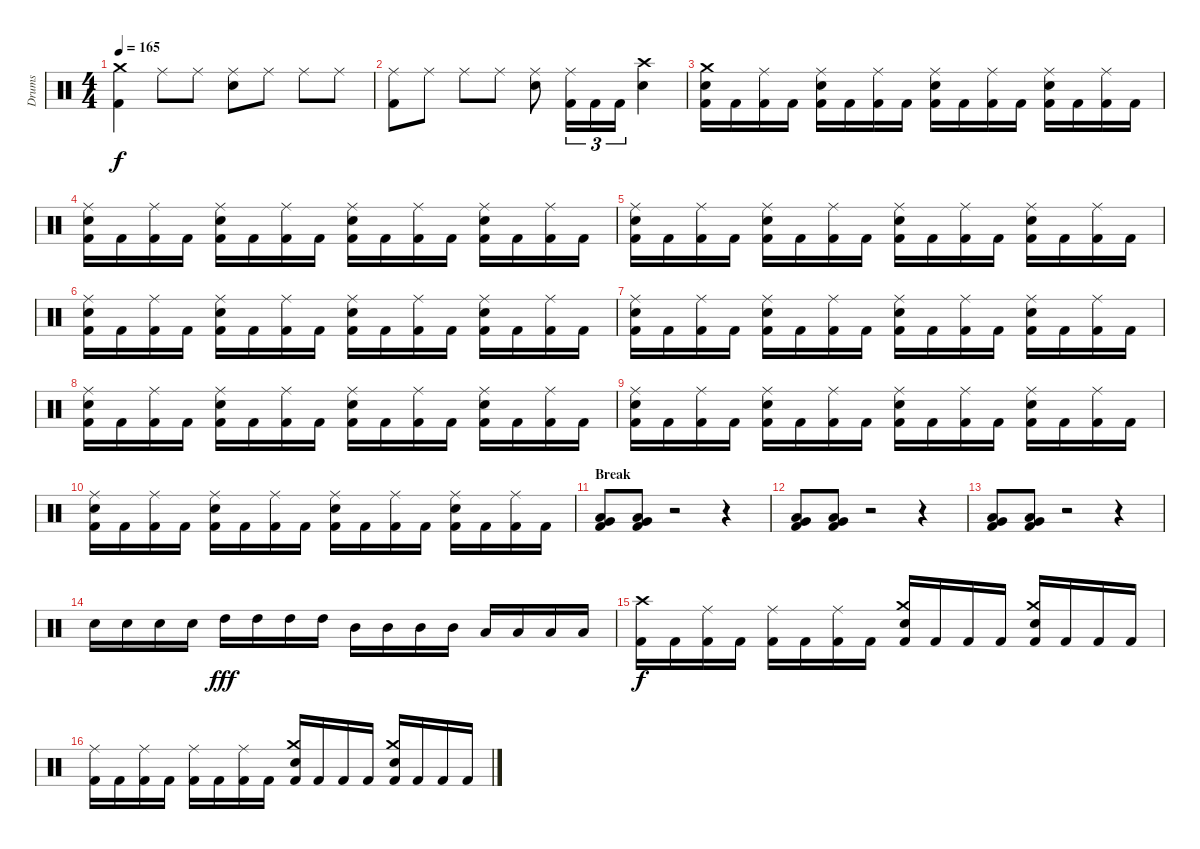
\track ("Drums" "Drums") {instrument percussion}
\staff {score}
\articulation defaults
\ts (4 4)
\tempo 165
\clef neutral
\ks c
("Kick (hit) 2" "Crash medium (hit)").4{dy f} "Ride (middle)".8 "Ride (middle)".8 ("Electric Snare (hit)" "Ride (middle)").8 "Ride (middle)".8 "Ride (middle)".8 "Ride (middle)".8 |
("Kick (hit) 2" "Ride (middle)").8 "Ride (middle)".8 "Ride (middle)".8 "Ride (middle)".8 ("Electric Snare (hit)" "Ride (middle)").8 ("Kick (hit) 2" "Ride (middle)").16{tu (3 2)} "Kick (hit) 2".16{tu (3 2)} "Kick (hit) 2".16{tu (3 2)} ("Electric Snare (hit)" "Crash high (hit)").4 |
("Kick (hit) 2" "Electric Snare (hit)" "Crash medium (hit)").16 "Kick (hit) 2".16 ("Kick (hit) 2" "Ride (middle)").16 "Kick (hit) 2".16 ("Kick (hit) 2" "Electric Snare (hit)" "Ride (middle)").16 "Kick (hit) 2".16 ("Kick (hit) 2" "Ride (middle)").16 "Kick (hit) 2".16 ("Kick (hit) 2" "Electric Snare (hit)" "Ride (middle)").16 "Kick (hit) 2".16 ("Kick (hit) 2" "Ride (middle)").16 "Kick (hit) 2".16 ("Kick (hit) 2" "Electric Snare (hit)" "Ride (middle)").16 "Kick (hit) 2".16 ("Kick (hit) 2" "Ride (middle)").16 "Kick (hit) 2".16 |
("Kick (hit) 2" "Electric Snare (hit)" "Ride (middle)").16 "Kick (hit) 2".16 ("Kick (hit) 2" "Ride (middle)").16 "Kick (hit) 2".16 ("Kick (hit) 2" "Electric Snare (hit)" "Ride (middle)").16 "Kick (hit) 2".16 ("Kick (hit) 2" "Ride (middle)").16 "Kick (hit) 2".16 ("Kick (hit) 2" "Electric Snare (hit)" "Ride (middle)").16 "Kick (hit) 2".16 ("Kick (hit) 2" "Ride (middle)").16 "Kick (hit) 2".16 ("Kick (hit) 2" "Electric Snare (hit)" "Ride (middle)").16 "Kick (hit) 2".16 ("Kick (hit) 2" "Ride (middle)").16 "Kick (hit) 2".16 |
("Kick (hit) 2" "Electric Snare (hit)" "Ride (middle)").16 "Kick (hit) 2".16 ("Kick (hit) 2" "Ride (middle)").16 "Kick (hit) 2".16 ("Kick (hit) 2" "Electric Snare (hit)" "Ride (middle)").16 "Kick (hit) 2".16 ("Kick (hit) 2" "Ride (middle)").16 "Kick (hit) 2".16 ("Kick (hit) 2" "Electric Snare (hit)" "Ride (middle)").16 "Kick (hit) 2".16 ("Kick (hit) 2" "Ride (middle)").16 "Kick (hit) 2".16 ("Kick (hit) 2" "Electric Snare (hit)" "Ride (middle)").16 "Kick (hit) 2".16 ("Kick (hit) 2" "Ride (middle)").16 "Kick (hit) 2".16 |
("Kick (hit) 2" "Electric Snare (hit)" "Ride (middle)").16 "Kick (hit) 2".16 ("Kick (hit) 2" "Ride (middle)").16 "Kick (hit) 2".16 ("Kick (hit) 2" "Electric Snare (hit)" "Ride (middle)").16 "Kick (hit) 2".16 ("Kick (hit) 2" "Ride (middle)").16 "Kick (hit) 2".16 ("Kick (hit) 2" "Electric Snare (hit)" "Ride (middle)").16 "Kick (hit) 2".16 ("Kick (hit) 2" "Ride (middle)").16 "Kick (hit) 2".16 ("Kick (hit) 2" "Electric Snare (hit)" "Ride (middle)").16 "Kick (hit) 2".16 ("Kick (hit) 2" "Ride (middle)").16 "Kick (hit) 2".16 |
("Kick (hit) 2" "Electric Snare (hit)" "Ride (middle)").16 "Kick (hit) 2".16 ("Kick (hit) 2" "Ride (middle)").16 "Kick (hit) 2".16 ("Kick (hit) 2" "Electric Snare (hit)" "Ride (middle)").16 "Kick (hit) 2".16 ("Kick (hit) 2" "Ride (middle)").16 "Kick (hit) 2".16 ("Kick (hit) 2" "Electric Snare (hit)" "Ride (middle)").16 "Kick (hit) 2".16 ("Kick (hit) 2" "Ride (middle)").16 "Kick (hit) 2".16 ("Kick (hit) 2" "Electric Snare (hit)" "Ride (middle)").16 "Kick (hit) 2".16 ("Kick (hit) 2" "Ride (middle)").16 "Kick (hit) 2".16 |
("Kick (hit) 2" "Electric Snare (hit)" "Ride (middle)").16 "Kick (hit) 2".16 ("Kick (hit) 2" "Ride (middle)").16 "Kick (hit) 2".16 ("Kick (hit) 2" "Electric Snare (hit)" "Ride (middle)").16 "Kick (hit) 2".16 ("Kick (hit) 2" "Ride (middle)").16 "Kick (hit) 2".16 ("Kick (hit) 2" "Electric Snare (hit)" "Ride (middle)").16 "Kick (hit) 2".16 ("Kick (hit) 2" "Ride (middle)").16 "Kick (hit) 2".16 ("Kick (hit) 2" "Electric Snare (hit)" "Ride (middle)").16 "Kick (hit) 2".16 ("Kick (hit) 2" "Ride (middle)").16 "Kick (hit) 2".16 |
("Kick (hit) 2" "Electric Snare (hit)" "Ride (middle)").16 "Kick (hit) 2".16 ("Kick (hit) 2" "Ride (middle)").16 "Kick (hit) 2".16 ("Kick (hit) 2" "Electric Snare (hit)" "Ride (middle)").16 "Kick (hit) 2".16 ("Kick (hit) 2" "Ride (middle)").16 "Kick (hit) 2".16 ("Kick (hit) 2" "Electric Snare (hit)" "Ride (middle)").16 "Kick (hit) 2".16 ("Kick (hit) 2" "Ride (middle)").16 "Kick (hit) 2".16 ("Kick (hit) 2" "Electric Snare (hit)" "Ride (middle)").16 "Kick (hit) 2".16 ("Kick (hit) 2" "Ride (middle)").16 "Kick (hit) 2".16 |
("Kick (hit) 2" "Electric Snare (hit)" "Ride (middle)").16 "Kick (hit) 2".16 ("Kick (hit) 2" "Ride (middle)").16 "Kick (hit) 2".16 ("Kick (hit) 2" "Electric Snare (hit)" "Ride (middle)").16 "Kick (hit) 2".16 ("Kick (hit) 2" "Ride (middle)").16 "Kick (hit) 2".16 ("Kick (hit) 2" "Electric Snare (hit)" "Ride (middle)").16 "Kick (hit) 2".16 ("Kick (hit) 2" "Ride (middle)").16 "Kick (hit) 2".16 ("Kick (hit) 2" "Electric Snare (hit)" "Ride (middle)").16 "Kick (hit) 2".16 ("Kick (hit) 2" "Ride (middle)").16 "Kick (hit) 2".16 |
\section ("" "Break")
("Kick (hit) 2" "Low Tom (hit)" "Very Low Tom (hit)").8 ("Kick (hit) 2" "Low Tom (hit)" "Very Low Tom (hit)").8 r.2 r.4 |
("Kick (hit) 2" "Low Tom (hit)" "Very Low Tom (hit)").8 ("Kick (hit) 2" "Low Tom (hit)" "Very Low Tom (hit)").8 r.2 r.4 |
("Kick (hit) 2" "Low Tom (hit)" "Very Low Tom (hit)").8 ("Kick (hit) 2" "Low Tom (hit)" "Very Low Tom (hit)").8 r.2 r.4 |
"Electric Snare (hit)".16 "Electric Snare (hit)".16 "Electric Snare (hit)".16 "Electric Snare (hit)".16 "High Tom (hit)".16{dy fff} "High Tom (hit)".16 "High Tom (hit)".16 "High Tom (hit)".16 "Mid Tom (hit)".16 "Mid Tom (hit)".16 "Mid Tom (hit)".16 "Mid Tom (hit)".16 "Low Tom (hit)".16 "Low Tom (hit)".16 "Low Tom (hit)".16 "Low Tom (hit)".16 |
("Kick (hit) 2" "Crash high (hit)").16{dy f} "Kick (hit) 2".16 ("Kick (hit) 2" "Ride (middle)").16 "Kick (hit) 2".16 ("Kick (hit) 2" "Ride (middle)").16 "Kick (hit) 2".16 ("Kick (hit) 2" "Ride (middle)").16 "Kick (hit) 2".16 ("Kick (hit) 2" "Electric Snare (hit)" "Crash medium (hit)").16 "Kick (hit) 2".16 "Kick (hit) 2".16 "Kick (hit) 2".16 ("Kick (hit) 2" "Electric Snare (hit)" "Crash medium (hit)").16 "Kick (hit) 2".16 "Kick (hit) 2".16 "Kick (hit) 2".16 |
("Kick (hit) 2" "Ride (middle)").16 "Kick (hit) 2".16 ("Kick (hit) 2" "Ride (middle)").16 "Kick (hit) 2".16 ("Kick (hit) 2" "Ride (middle)").16 "Kick (hit) 2".16 ("Kick (hit) 2" "Ride (middle)").16 "Kick (hit) 2".16 ("Kick (hit) 2" "Electric Snare (hit)" "Crash medium (hit)").16 "Kick (hit) 2".16 "Kick (hit) 2".16 "Kick (hit) 2".16 ("Kick (hit) 2" "Electric Snare (hit)" "Crash medium (hit)").16 "Kick (hit) 2".16 "Kick (hit) 2".16 "Kick (hit) 2".16
